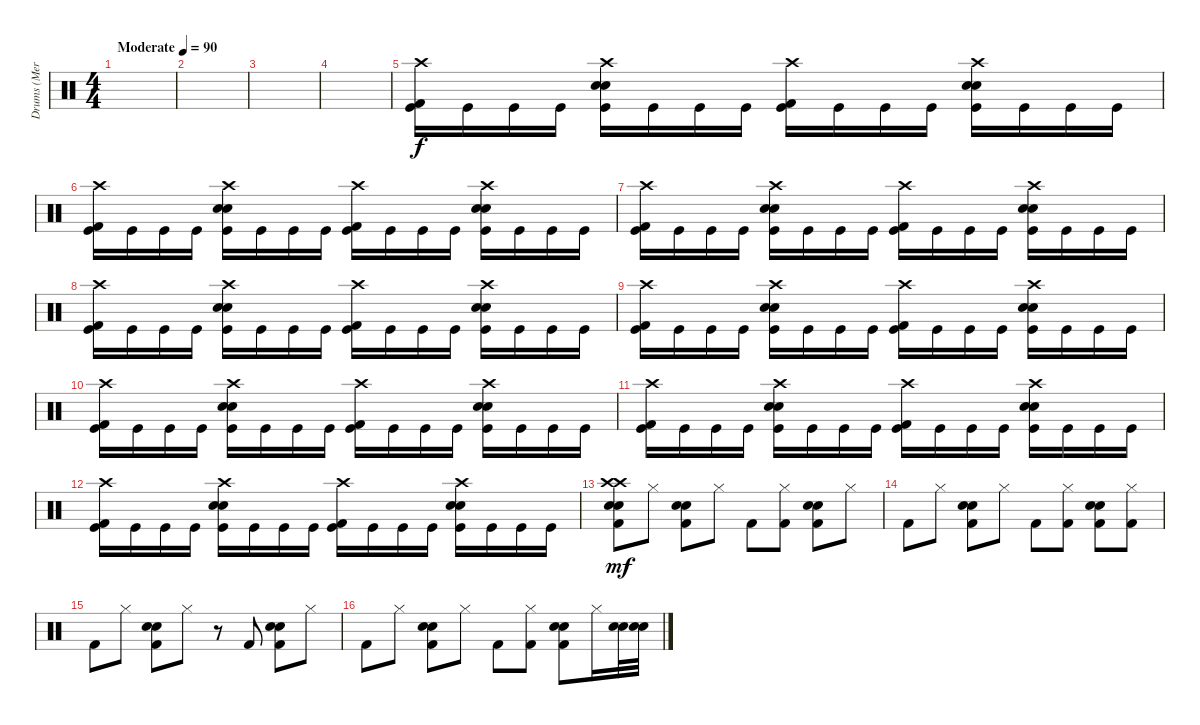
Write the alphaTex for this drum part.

\track ("Drums (Merlin)" "Drums (Mer") {instrument percussion}
\staff {score}
\articulation defaults
\ts (4 4)
\tempo (90 "Moderate")
\clef neutral
\ks c
|
|
|
|
("Crash high (hit)" "Kick (hit) 2" "Kick (hit)").16 "Kick (hit)".16 "Kick (hit)".16 "Kick (hit)".16 ("Electric Snare (hit)" "Crash high (hit)" "Snare (hit) 2" "Kick (hit)").16 "Kick (hit)".16 "Kick (hit)".16 "Kick (hit)".16 ("Crash high (hit)" "Kick (hit) 2" "Kick (hit)").16 "Kick (hit)".16 "Kick (hit)".16 "Kick (hit)".16 ("Electric Snare (hit)" "Crash high (hit)" "Snare (hit) 2" "Kick (hit)").16 "Kick (hit)".16 "Kick (hit)".16 "Kick (hit)".16 |
("Crash high (hit)" "Kick (hit) 2" "Kick (hit)").16 "Kick (hit)".16 "Kick (hit)".16 "Kick (hit)".16 ("Electric Snare (hit)" "Crash high (hit)" "Snare (hit) 2" "Kick (hit)").16 "Kick (hit)".16 "Kick (hit)".16 "Kick (hit)".16 ("Crash high (hit)" "Kick (hit) 2" "Kick (hit)").16 "Kick (hit)".16 "Kick (hit)".16 "Kick (hit)".16 ("Electric Snare (hit)" "Crash high (hit)" "Snare (hit) 2" "Kick (hit)").16 "Kick (hit)".16 "Kick (hit)".16 "Kick (hit)".16 |
("Crash high (hit)" "Kick (hit) 2" "Kick (hit)").16 "Kick (hit)".16 "Kick (hit)".16 "Kick (hit)".16 ("Electric Snare (hit)" "Crash high (hit)" "Snare (hit) 2" "Kick (hit)").16 "Kick (hit)".16 "Kick (hit)".16 "Kick (hit)".16 ("Crash high (hit)" "Kick (hit) 2" "Kick (hit)").16 "Kick (hit)".16 "Kick (hit)".16 "Kick (hit)".16 ("Electric Snare (hit)" "Crash high (hit)" "Snare (hit) 2" "Kick (hit)").16 "Kick (hit)".16 "Kick (hit)".16 "Kick (hit)".16 |
("Crash high (hit)" "Kick (hit) 2" "Kick (hit)").16 "Kick (hit)".16 "Kick (hit)".16 "Kick (hit)".16 ("Electric Snare (hit)" "Crash high (hit)" "Snare (hit) 2" "Kick (hit)").16 "Kick (hit)".16 "Kick (hit)".16 "Kick (hit)".16 ("Crash high (hit)" "Kick (hit) 2" "Kick (hit)").16 "Kick (hit)".16 "Kick (hit)".16 "Kick (hit)".16 ("Electric Snare (hit)" "Crash high (hit)" "Snare (hit) 2" "Kick (hit)").16 "Kick (hit)".16 "Kick (hit)".16 "Kick (hit)".16 |
("Crash high (hit)" "Kick (hit) 2" "Kick (hit)").16 "Kick (hit)".16 "Kick (hit)".16 "Kick (hit)".16 ("Electric Snare (hit)" "Crash high (hit)" "Snare (hit) 2" "Kick (hit)").16 "Kick (hit)".16 "Kick (hit)".16 "Kick (hit)".16 ("Crash high (hit)" "Kick (hit) 2" "Kick (hit)").16 "Kick (hit)".16 "Kick (hit)".16 "Kick (hit)".16 ("Electric Snare (hit)" "Crash high (hit)" "Snare (hit) 2" "Kick (hit)").16 "Kick (hit)".16 "Kick (hit)".16 "Kick (hit)".16 |
("Crash high (hit)" "Kick (hit) 2" "Kick (hit)").16 "Kick (hit)".16 "Kick (hit)".16 "Kick (hit)".16 ("Electric Snare (hit)" "Crash high (hit)" "Snare (hit) 2" "Kick (hit)").16 "Kick (hit)".16 "Kick (hit)".16 "Kick (hit)".16 ("Crash high (hit)" "Kick (hit) 2" "Kick (hit)").16 "Kick (hit)".16 "Kick (hit)".16 "Kick (hit)".16 ("Electric Snare (hit)" "Crash high (hit)" "Snare (hit) 2" "Kick (hit)").16 "Kick (hit)".16 "Kick (hit)".16 "Kick (hit)".16 |
("Crash high (hit)" "Kick (hit) 2" "Kick (hit)").16 "Kick (hit)".16 "Kick (hit)".16 "Kick (hit)".16 ("Electric Snare (hit)" "Crash high (hit)" "Snare (hit) 2" "Kick (hit)").16 "Kick (hit)".16 "Kick (hit)".16 "Kick (hit)".16 ("Crash high (hit)" "Kick (hit) 2" "Kick (hit)").16 "Kick (hit)".16 "Kick (hit)".16 "Kick (hit)".16 ("Electric Snare (hit)" "Crash high (hit)" "Snare (hit) 2" "Kick (hit)").16 "Kick (hit)".16 "Kick (hit)".16 "Kick (hit)".16 |
("Crash high (hit)" "Kick (hit) 2" "Kick (hit)").16 "Kick (hit)".16 "Kick (hit)".16 "Kick (hit)".16 ("Electric Snare (hit)" "Crash high (hit)" "Snare (hit) 2" "Kick (hit)").16 "Kick (hit)".16 "Kick (hit)".16 "Kick (hit)".16 ("Crash high (hit)" "Kick (hit) 2" "Kick (hit)").16 "Kick (hit)".16 "Kick (hit)".16 "Kick (hit)".16 ("Electric Snare (hit)" "Crash high (hit)" "Snare (hit) 2" "Kick (hit)").16 "Kick (hit)".16 "Kick (hit)".16 "Kick (hit)".16 |
("Crash high (hit)" "Crash high (hit)" "Electric Snare (hit)" "Snare (hit) 2" "Kick (hit) 2").8{dy mf} "Hi-Hat (closed)".8 ("Electric Snare (hit)" "Snare (hit) 2" "Kick (hit) 2").8 "Hi-Hat (closed)".8 "Kick (hit) 2".8 ("Hi-Hat (closed)" "Kick (hit) 2").8 ("Electric Snare (hit)" "Snare (hit) 2" "Kick (hit) 2").8 "Hi-Hat (closed)".8 |
"Kick (hit) 2".8 "Hi-Hat (closed)".8 ("Electric Snare (hit)" "Snare (hit) 2" "Kick (hit) 2").8 "Hi-Hat (closed)".8 "Kick (hit) 2".8 ("Hi-Hat (closed)" "Kick (hit) 2").8 ("Electric Snare (hit)" "Snare (hit) 2" "Kick (hit) 2").8 ("Hi-Hat (closed)" "Kick (hit) 2").8 |
"Kick (hit) 2".8 "Hi-Hat (closed)".8 ("Electric Snare (hit)" "Snare (hit) 2" "Kick (hit) 2").8 "Hi-Hat (closed)".8 r.8 "Kick (hit) 2".8 ("Electric Snare (hit)" "Snare (hit) 2" "Kick (hit) 2").8 "Hi-Hat (closed)".8 |
"Kick (hit) 2".8 "Hi-Hat (closed)".8 ("Electric Snare (hit)" "Snare (hit) 2" "Kick (hit) 2").8 "Hi-Hat (closed)".8 "Kick (hit) 2".8 ("Hi-Hat (closed)" "Kick (hit) 2").8 ("Electric Snare (hit)" "Snare (hit) 2" "Kick (hit) 2").8 "Hi-Hat (closed)".16 ("Electric Snare (hit)" "Snare (hit) 2").32 ("Electric Snare (hit)" "Snare (hit) 2").32
